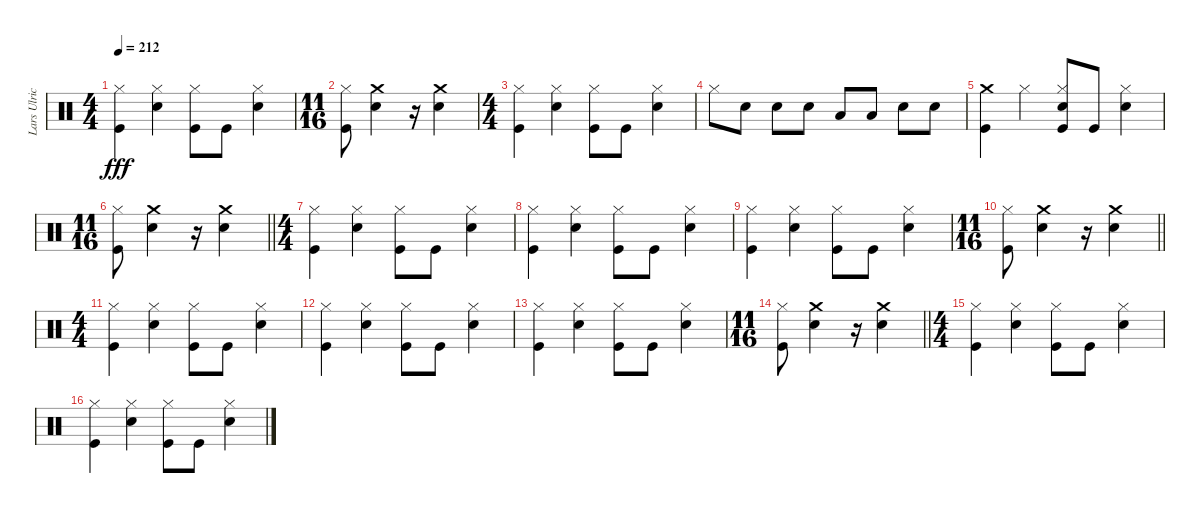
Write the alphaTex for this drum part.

\track ("Lars Ulrich" "Lars Ulric") {instrument percussion}
\staff {score}
\articulation defaults
\ts (4 4)
\tempo 212
\clef neutral
\ks c
("Kick (hit)" "Hi-Hat (closed)").4{dy fff} ("Hi-Hat (closed)" "Snare (hit) 2").4 ("Hi-Hat (closed)" "Kick (hit)").8 "Kick (hit)".8 ("Hi-Hat (closed)" "Snare (hit) 2").4 |
\ts (11 16)
("Hi-Hat (closed)" "Kick (hit)").8 ("Snare (hit) 2" "Crash medium (hit)").4 r.16 ("Snare (hit) 2" "Crash medium (hit)").4 |
\ts (4 4)
("Kick (hit)" "Hi-Hat (closed)").4 ("Snare (hit) 2" "Hi-Hat (closed)").4 ("Kick (hit)" "Hi-Hat (closed)").8 "Kick (hit)".8 ("Hi-Hat (closed)" "Snare (hit) 2").4 |
"Hi-Hat (closed)".8 "Snare (hit) 2".8 "Snare (hit) 2".8 "Snare (hit) 2".8 "Low Floor Tom (hit)".8 "Low Floor Tom (hit)".8 "Snare (hit) 2".8 "Snare (hit) 2".8 |
("Kick (hit)" "Crash medium (hit)").4 "Hi-Hat (closed)".4 ("Hi-Hat (closed)" "Kick (hit)" "Snare (hit) 2").8 "Kick (hit)".8 ("Snare (hit) 2" "Hi-Hat (closed)").4 |
\ts (11 16)
\barLineRight lightlight
("Kick (hit)" "Hi-Hat (closed)").8 ("Crash medium (hit)" "Snare (hit) 2").4 r.16 ("Crash medium (hit)" "Snare (hit) 2").4 |
\ts (4 4)
("Kick (hit)" "Hi-Hat (closed)").4 ("Hi-Hat (closed)" "Snare (hit) 2").4 ("Kick (hit)" "Hi-Hat (closed)").8 "Kick (hit)".8 ("Snare (hit) 2" "Hi-Hat (closed)").4 |
("Kick (hit)" "Hi-Hat (closed)").4 ("Snare (hit) 2" "Hi-Hat (closed)").4 ("Kick (hit)" "Hi-Hat (closed)").8 "Kick (hit)".8 ("Hi-Hat (closed)" "Snare (hit) 2").4 |
("Kick (hit)" "Hi-Hat (closed)").4 ("Snare (hit) 2" "Hi-Hat (closed)").4 ("Kick (hit)" "Hi-Hat (closed)").8 "Kick (hit)".8 ("Snare (hit) 2" "Hi-Hat (closed)").4 |
\ts (11 16)
\barLineRight lightlight
("Hi-Hat (closed)" "Kick (hit)").8 ("Crash medium (hit)" "Snare (hit) 2").4 r.16 ("Crash medium (hit)" "Snare (hit) 2").4 |
\ts (4 4)
("Kick (hit)" "Hi-Hat (closed)").4 ("Snare (hit) 2" "Hi-Hat (closed)").4 ("Kick (hit)" "Hi-Hat (closed)").8 "Kick (hit)".8 ("Snare (hit) 2" "Hi-Hat (closed)").4 |
("Hi-Hat (closed)" "Kick (hit)").4 ("Snare (hit) 2" "Hi-Hat (closed)").4 ("Kick (hit)" "Hi-Hat (closed)").8 "Kick (hit)".8 ("Snare (hit) 2" "Hi-Hat (closed)").4 |
("Kick (hit)" "Hi-Hat (closed)").4 ("Snare (hit) 2" "Hi-Hat (closed)").4 ("Hi-Hat (closed)" "Kick (hit)").8 "Kick (hit)".8 ("Snare (hit) 2" "Hi-Hat (closed)").4 |
\ts (11 16)
\barLineRight lightlight
("Kick (hit)" "Hi-Hat (closed)").8 ("Crash medium (hit)" "Snare (hit) 2").4 r.16 ("Crash medium (hit)" "Snare (hit) 2").4 |
\ts (4 4)
("Kick (hit)" "Hi-Hat (closed)").4 ("Hi-Hat (closed)" "Snare (hit) 2").4 ("Kick (hit)" "Hi-Hat (closed)").8 "Kick (hit)".8 ("Snare (hit) 2" "Hi-Hat (closed)").4 |
("Kick (hit)" "Hi-Hat (closed)").4 ("Snare (hit) 2" "Hi-Hat (closed)").4 ("Kick (hit)" "Hi-Hat (closed)").8 "Kick (hit)".8 ("Snare (hit) 2" "Hi-Hat (closed)").4
